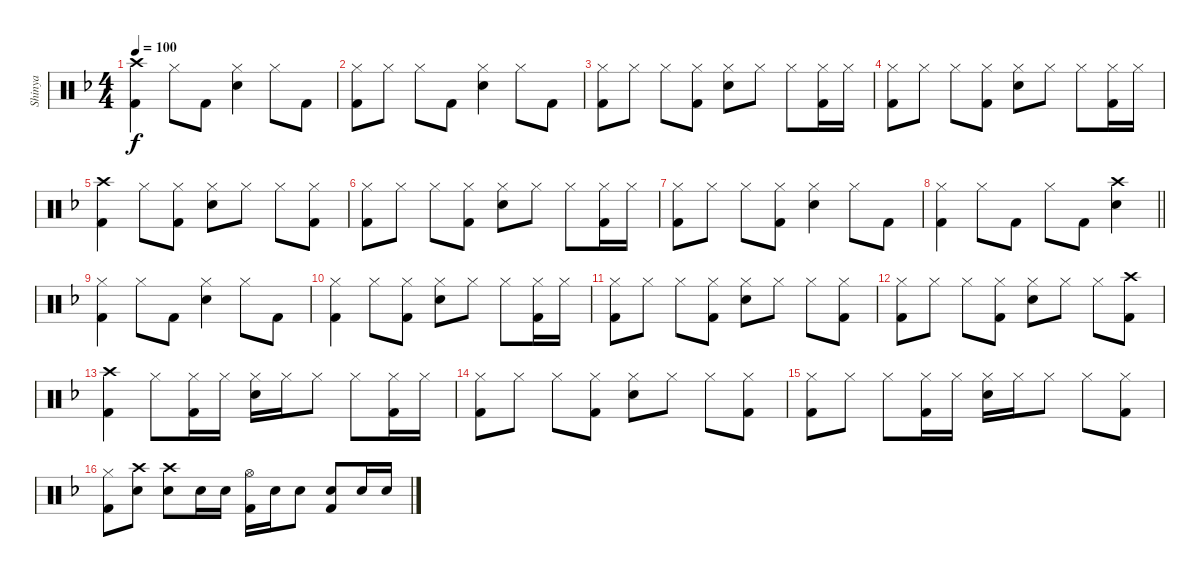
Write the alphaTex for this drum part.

\track ("Shinya" "Shinya") {instrument percussion}
\staff {score}
\articulation defaults
\ts (4 4)
\tempo 100
\clef neutral
\ks f
("Crash high (hit)" "Kick (hit) 2").4{dy f} "Hi-Hat (closed)".8 "Kick (hit) 2".8 ("Hi-Hat (closed)" "Electric Snare (hit)").4 "Hi-Hat (closed)".8 "Kick (hit) 2".8 |
("Hi-Hat (closed)" "Kick (hit) 2").8 "Hi-Hat (closed)".8 "Hi-Hat (closed)".8 "Kick (hit) 2".8 ("Hi-Hat (closed)" "Electric Snare (hit)").4 "Hi-Hat (closed)".8 "Kick (hit) 2".8 |
("Hi-Hat (closed)" "Kick (hit) 2").8 "Hi-Hat (closed)".8 "Hi-Hat (closed)".8 ("Hi-Hat (closed)" "Kick (hit) 2").8 ("Hi-Hat (closed)" "Electric Snare (hit)").8 "Hi-Hat (closed)".8 "Hi-Hat (closed)".8 ("Hi-Hat (closed)" "Kick (hit) 2").16 "Hi-Hat (closed)".16 |
("Hi-Hat (closed)" "Kick (hit) 2").8 "Hi-Hat (closed)".8 "Hi-Hat (closed)".8 ("Hi-Hat (closed)" "Kick (hit) 2").8 ("Hi-Hat (closed)" "Electric Snare (hit)").8 "Hi-Hat (closed)".8 "Hi-Hat (closed)".8 ("Hi-Hat (closed)" "Kick (hit) 2").16 "Hi-Hat (closed)".16 |
("Crash high (hit)" "Kick (hit) 2").4 "Hi-Hat (closed)".8 ("Hi-Hat (closed)" "Kick (hit) 2").8 ("Hi-Hat (closed)" "Electric Snare (hit)").8 "Hi-Hat (closed)".8 "Hi-Hat (closed)".8 ("Hi-Hat (closed)" "Kick (hit) 2").8 |
("Hi-Hat (closed)" "Kick (hit) 2").8 "Hi-Hat (closed)".8 "Hi-Hat (closed)".8 ("Hi-Hat (closed)" "Kick (hit) 2").8 ("Hi-Hat (closed)" "Electric Snare (hit)").8 "Hi-Hat (closed)".8 "Hi-Hat (closed)".8 ("Hi-Hat (closed)" "Kick (hit) 2").16 "Hi-Hat (closed)".16 |
("Hi-Hat (closed)" "Kick (hit) 2").8 "Hi-Hat (closed)".8 "Hi-Hat (closed)".8 ("Hi-Hat (closed)" "Kick (hit) 2").8 ("Hi-Hat (closed)" "Electric Snare (hit)").4 "Hi-Hat (closed)".8 "Kick (hit) 2".8 |
\barLineRight lightlight
("Hi-Hat (closed)" "Kick (hit) 2").4 "Hi-Hat (closed)".8 "Kick (hit) 2".8 "Hi-Hat (closed)".8 "Kick (hit) 2".8 ("Crash high (hit)" "Electric Snare (hit)").4 |
("Hi-Hat (closed)" "Kick (hit) 2").4 "Hi-Hat (closed)".8 "Kick (hit) 2".8 ("Hi-Hat (closed)" "Electric Snare (hit)").4 "Hi-Hat (closed)".8 "Kick (hit) 2".8 |
("Hi-Hat (closed)" "Kick (hit) 2").4 "Hi-Hat (closed)".8 ("Hi-Hat (closed)" "Kick (hit) 2").8 ("Hi-Hat (closed)" "Electric Snare (hit)").8 "Hi-Hat (closed)".8 "Hi-Hat (closed)".8 ("Hi-Hat (closed)" "Kick (hit) 2").16 "Hi-Hat (closed)".16 |
("Hi-Hat (closed)" "Kick (hit) 2").8 "Hi-Hat (closed)".8 "Hi-Hat (closed)".8 ("Hi-Hat (closed)" "Kick (hit) 2").8 ("Hi-Hat (closed)" "Electric Snare (hit)").8 "Hi-Hat (closed)".8 "Hi-Hat (closed)".8 ("Hi-Hat (closed)" "Kick (hit) 2").8 |
("Hi-Hat (closed)" "Kick (hit) 2").8 "Hi-Hat (closed)".8 "Hi-Hat (closed)".8 ("Hi-Hat (closed)" "Kick (hit) 2").8 ("Hi-Hat (closed)" "Electric Snare (hit)").8 "Hi-Hat (closed)".8 "Hi-Hat (closed)".8 ("Crash high (hit)" "Kick (hit) 2").8 |
("Crash high (hit)" "Kick (hit) 2").4 "Hi-Hat (closed)".8 ("Hi-Hat (closed)" "Kick (hit) 2").16 "Hi-Hat (closed)".16 ("Hi-Hat (closed)" "Electric Snare (hit)").16 "Hi-Hat (closed)".16 "Hi-Hat (closed)".8 "Hi-Hat (closed)".8 ("Hi-Hat (closed)" "Kick (hit) 2").16 "Hi-Hat (closed)".16 |
("Hi-Hat (closed)" "Kick (hit) 2").8 "Hi-Hat (closed)".8 "Hi-Hat (closed)".8 ("Hi-Hat (closed)" "Kick (hit) 2").8 ("Hi-Hat (closed)" "Electric Snare (hit)").8 "Hi-Hat (closed)".8 "Hi-Hat (closed)".8 ("Hi-Hat (closed)" "Kick (hit) 2").8 |
("Hi-Hat (closed)" "Kick (hit) 2").8 "Hi-Hat (closed)".8 "Hi-Hat (closed)".8 ("Hi-Hat (closed)" "Kick (hit) 2").16 "Hi-Hat (closed)".16 ("Hi-Hat (closed)" "Electric Snare (hit)").16 "Hi-Hat (closed)".16 "Hi-Hat (closed)".8 "Hi-Hat (closed)".8 ("Hi-Hat (closed)" "Kick (hit) 2").8 |
("Hi-Hat (closed)" "Kick (hit) 2").8 ("Crash high (hit)" "Electric Snare (hit)").8 ("Crash high (hit)" "Electric Snare (hit)").8 "Electric Snare (hit)".16 "Electric Snare (hit)".16 ("Hi-Hat (open)" "Kick (hit) 2").16 "Electric Snare (hit)".16 "Electric Snare (hit)".8 ("Electric Snare (hit)" "Kick (hit) 2").8 "Electric Snare (hit)".16 "Electric Snare (hit)".16
